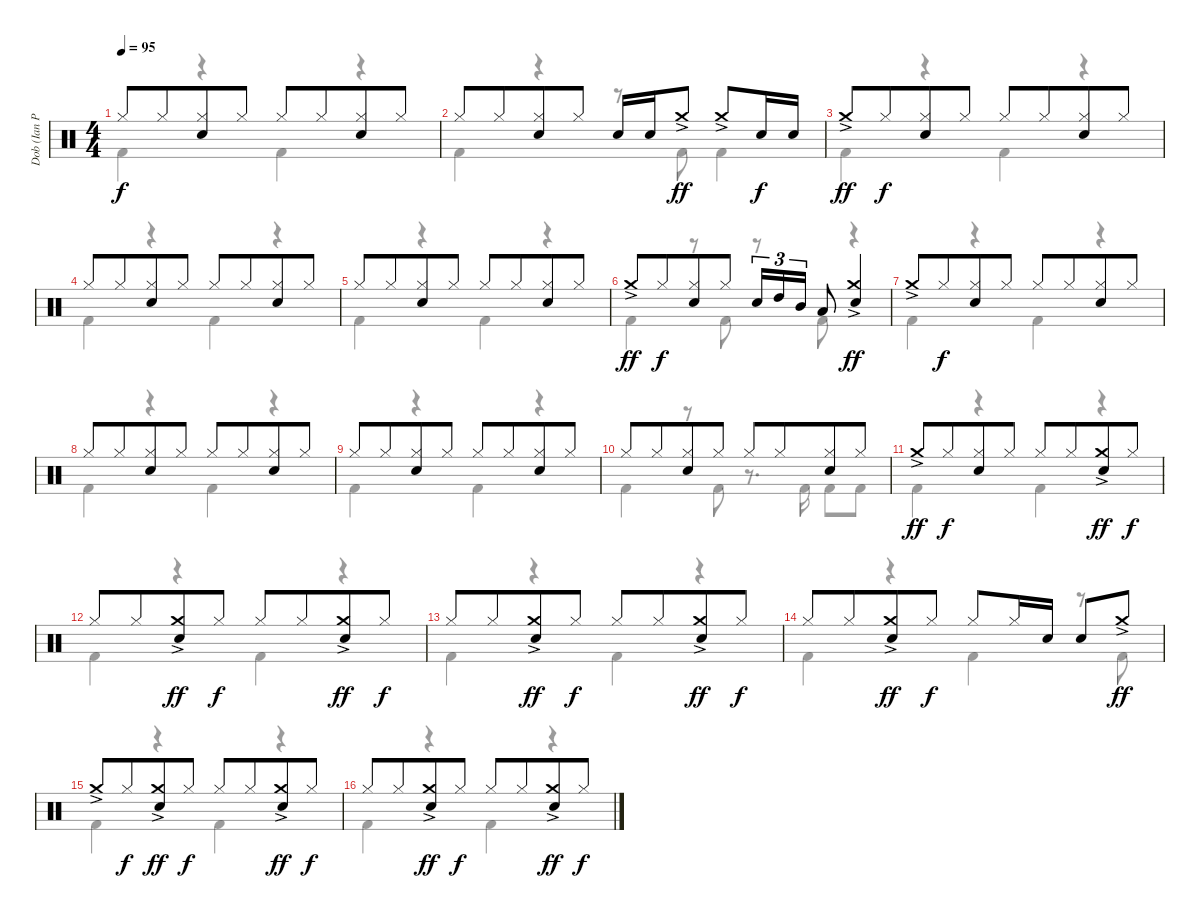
\track ("Dob (Ian Paice)" "Dob (Ian P") {instrument percussion}
\staff {score}
\articulation defaults
\voice
\ts (4 4)
\tempo 95
\clef neutral
\ks c "Hi-Hat (closed)".8{dy f} "Hi-Hat (closed)".8{beam merge}
("Hi-Hat (closed)" "Electric Snare (hit)").8 "Hi-Hat (closed)".8 "Hi-Hat (closed)".8 "Hi-Hat (closed)".8{beam merge} ("Hi-Hat (closed)" "Electric Snare (hit)").8 "Hi-Hat (closed)".8 |
"Hi-Hat (closed)".8 "Hi-Hat (closed)".8{beam merge} ("Hi-Hat (closed)" "Electric Snare (hit)").8 "Hi-Hat (closed)".8 "Electric Snare (hit)".16 "Electric Snare (hit)".16 "Crash medium (hit)"{ac}.8{dy ff} "Crash medium (hit)"{ac}.8 "Electric Snare (hit)".16{dy f} "Electric Snare (hit)".16 |
"Crash medium (hit)"{ac}.8{dy ff} "Hi-Hat (closed)".8{dy f beam merge} ("Hi-Hat (closed)" "Electric Snare (hit)").8 "Hi-Hat (closed)".8 "Hi-Hat (closed)".8 "Hi-Hat (closed)".8{beam merge} ("Hi-Hat (closed)" "Electric Snare (hit)").8 "Hi-Hat (closed)".8 |
"Hi-Hat (closed)".8 "Hi-Hat (closed)".8{beam merge} ("Hi-Hat (closed)" "Electric Snare (hit)").8 "Hi-Hat (closed)".8 "Hi-Hat (closed)".8 "Hi-Hat (closed)".8{beam merge} ("Hi-Hat (closed)" "Electric Snare (hit)").8 "Hi-Hat (closed)".8 |
"Hi-Hat (closed)".8 "Hi-Hat (closed)".8{beam merge} ("Hi-Hat (closed)" "Electric Snare (hit)").8 "Hi-Hat (closed)".8 "Hi-Hat (closed)".8 "Hi-Hat (closed)".8{beam merge} ("Hi-Hat (closed)" "Electric Snare (hit)").8 "Hi-Hat (closed)".8 |
"Crash medium (hit)"{ac}.8{dy ff} "Hi-Hat (closed)".8{dy f beam merge} ("Hi-Hat (closed)" "Electric Snare (hit)").8 "Hi-Hat (closed)".8 "Electric Snare (hit)".16{tu (3 2)} "High Tom (hit)".16{tu (3 2)} "Mid Tom (hit)".16{tu (3 2)} "Low Tom (hit)".8 ("Crash medium (hit)"{ac} "Electric Snare (hit)").4{dy ff} |
"Crash medium (hit)"{ac}.8 "Hi-Hat (closed)".8{dy f beam merge} ("Hi-Hat (closed)" "Electric Snare (hit)").8 "Hi-Hat (closed)".8 "Hi-Hat (closed)".8 "Hi-Hat (closed)".8{beam merge} ("Hi-Hat (closed)" "Electric Snare (hit)").8 "Hi-Hat (closed)".8 |
"Hi-Hat (closed)".8 "Hi-Hat (closed)".8{beam merge} ("Hi-Hat (closed)" "Electric Snare (hit)").8 "Hi-Hat (closed)".8 "Hi-Hat (closed)".8 "Hi-Hat (closed)".8{beam merge} ("Hi-Hat (closed)" "Electric Snare (hit)").8 "Hi-Hat (closed)".8 |
"Hi-Hat (closed)".8 "Hi-Hat (closed)".8{beam merge} ("Hi-Hat (closed)" "Electric Snare (hit)").8 "Hi-Hat (closed)".8 "Hi-Hat (closed)".8 "Hi-Hat (closed)".8{beam merge} ("Hi-Hat (closed)" "Electric Snare (hit)").8 "Hi-Hat (closed)".8 |
"Hi-Hat (closed)".8 "Hi-Hat (closed)".8{beam merge} ("Hi-Hat (closed)" "Electric Snare (hit)").8 "Hi-Hat (closed)".8 "Hi-Hat (closed)".8 "Hi-Hat (closed)".8{beam merge} ("Hi-Hat (closed)" "Electric Snare (hit)").8 "Hi-Hat (closed)".8 |
"Crash medium (hit)"{ac}.8{dy ff} "Hi-Hat (closed)".8{dy f beam merge} ("Hi-Hat (closed)" "Electric Snare (hit)").8 "Hi-Hat (closed)".8 "Hi-Hat (closed)".8 "Hi-Hat (closed)".8{beam merge} ("Crash medium (hit)"{ac} "Electric Snare (hit)").8{dy ff} "Hi-Hat (closed)".8{dy f} |
"Hi-Hat (closed)".8 "Hi-Hat (closed)".8{beam merge} ("Crash medium (hit)"{ac} "Electric Snare (hit)").8{dy ff} "Hi-Hat (closed)".8{dy f} "Hi-Hat (closed)".8 "Hi-Hat (closed)".8{beam merge} ("Crash medium (hit)"{ac} "Electric Snare (hit)").8{dy ff} "Hi-Hat (closed)".8{dy f} |
"Hi-Hat (closed)".8 "Hi-Hat (closed)".8{beam merge} ("Crash medium (hit)"{ac} "Electric Snare (hit)").8{dy ff} "Hi-Hat (closed)".8{dy f} "Hi-Hat (closed)".8 "Hi-Hat (closed)".8{beam merge} ("Crash medium (hit)"{ac} "Electric Snare (hit)").8{dy ff} "Hi-Hat (closed)".8{dy f} |
"Hi-Hat (closed)".8 "Hi-Hat (closed)".8{beam merge} ("Crash medium (hit)"{ac} "Electric Snare (hit)").8{dy ff} "Hi-Hat (closed)".8{dy f} "Hi-Hat (closed)".8 "Hi-Hat (closed)".16 "Electric Snare (hit)".16 "Electric Snare (hit)".8 "Crash medium (hit)"{ac}.8{dy ff} |
"Crash medium (hit)"{ac}.8 "Hi-Hat (closed)".8{dy f beam merge} ("Crash medium (hit)"{ac} "Electric Snare (hit)").8{dy ff} "Hi-Hat (closed)".8{dy f} "Hi-Hat (closed)".8 "Hi-Hat (closed)".8{beam merge} ("Crash medium (hit)"{ac} "Electric Snare (hit)").8{dy ff} "Hi-Hat (closed)".8{dy f} |
"Hi-Hat (closed)".8 "Hi-Hat (closed)".8{beam merge} ("Crash medium (hit)"{ac} "Electric Snare (hit)").8{dy ff} "Hi-Hat (closed)".8{dy f} "Hi-Hat (closed)".8 "Hi-Hat (closed)".8{beam merge} ("Crash medium (hit)"{ac} "Electric Snare (hit)").8{dy ff} "Hi-Hat (closed)".8{dy f}
\voice
\clef neutral
\ottava regular
\simile none
\ks c "Kick (hit) 2".4{dy f}
r.4 "Kick (hit) 2".4 r.4 |
"Kick (hit) 2".4 r.4 r.8 "Kick (hit) 2".8 "Kick (hit) 2".4 |
"Kick (hit) 2".4 r.4 "Kick (hit) 2".4 r.4 |
"Kick (hit) 2".4 r.4 "Kick (hit) 2".4 r.4 |
"Kick (hit) 2".4 r.4 "Kick (hit) 2".4 r.4 |
"Kick (hit) 2".4 r.8 "Kick (hit) 2".8 r.8 "Kick (hit) 2".8 r.4 |
"Kick (hit) 2".4 r.4 "Kick (hit) 2".4 r.4 |
"Kick (hit) 2".4 r.4 "Kick (hit) 2".4 r.4 |
"Kick (hit) 2".4 r.4 "Kick (hit) 2".4 r.4 |
"Kick (hit) 2".4 r.8 "Kick (hit) 2".8 r.8{d} "Kick (hit) 2".16 "Kick (hit) 2".8 "Kick (hit) 2".8 |
"Kick (hit) 2".4 r.4 "Kick (hit) 2".4 r.4 |
"Kick (hit) 2".4 r.4 "Kick (hit) 2".4 r.4 |
"Kick (hit) 2".4 r.4 "Kick (hit) 2".4 r.4 |
"Kick (hit) 2".4 r.4 "Kick (hit) 2".4 r.8 "Kick (hit) 2".8 |
"Kick (hit) 2".4 r.4 "Kick (hit) 2".4 r.4 |
"Kick (hit) 2".4 r.4 "Kick (hit) 2".4 r.4
